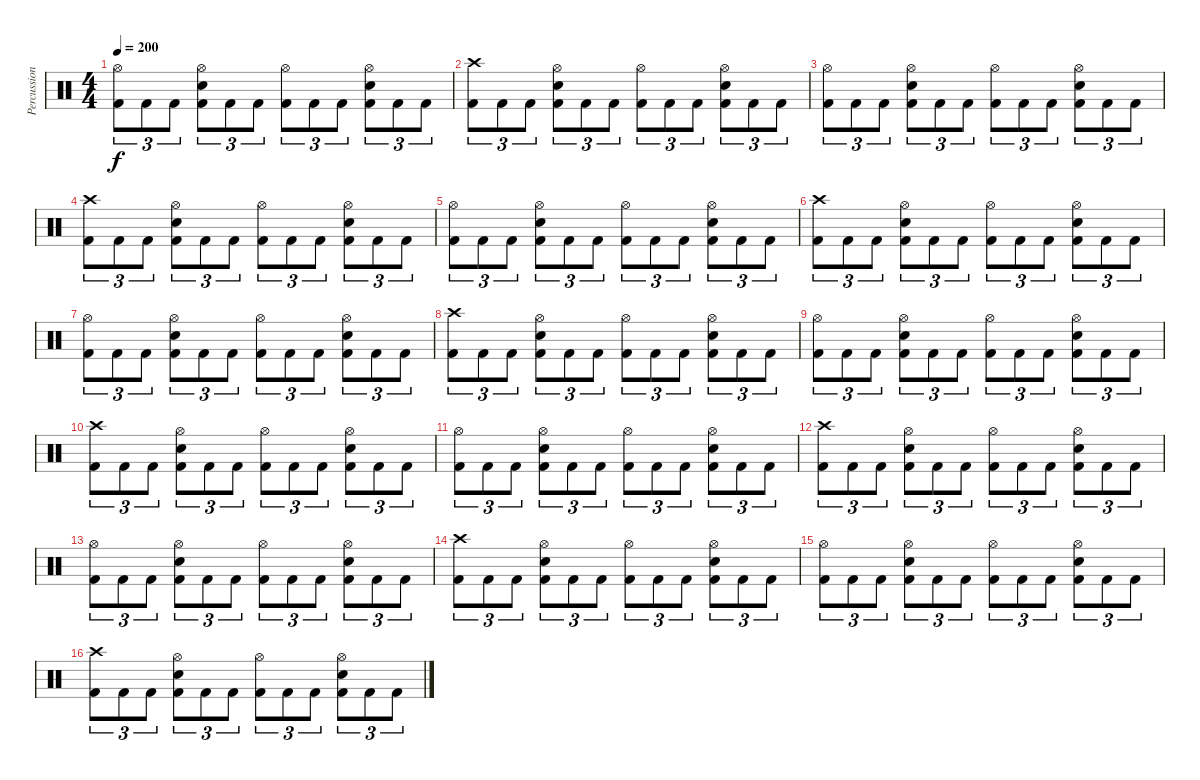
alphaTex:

\track ("Percussion" "Percussion") {instrument percussion}
\staff {score}
\articulation defaults
\ts (4 4)
\tempo 200
\clef neutral
\ks c
("Hi-Hat (open)" "Kick (hit) 2").8{tu (3 2) dy f} "Kick (hit) 2".8{tu (3 2)} "Kick (hit) 2".8{tu (3 2)} ("Hi-Hat (open)" "Electric Snare (hit)" "Kick (hit) 2").8{tu (3 2)} "Kick (hit) 2".8{tu (3 2)} "Kick (hit) 2".8{tu (3 2)} ("Hi-Hat (open)" "Kick (hit) 2").8{tu (3 2)} "Kick (hit) 2".8{tu (3 2)} "Kick (hit) 2".8{tu (3 2)} ("Hi-Hat (open)" "Electric Snare (hit)" "Kick (hit) 2").8{tu (3 2)} "Kick (hit) 2".8{tu (3 2)} "Kick (hit) 2".8{tu (3 2)} |
("Crash high (hit)" "Kick (hit) 2").8{tu (3 2)} "Kick (hit) 2".8{tu (3 2)} "Kick (hit) 2".8{tu (3 2)} ("Hi-Hat (open)" "Electric Snare (hit)" "Kick (hit) 2").8{tu (3 2)} "Kick (hit) 2".8{tu (3 2)} "Kick (hit) 2".8{tu (3 2)} ("Hi-Hat (open)" "Kick (hit) 2").8{tu (3 2)} "Kick (hit) 2".8{tu (3 2)} "Kick (hit) 2".8{tu (3 2)} ("Hi-Hat (open)" "Electric Snare (hit)" "Kick (hit) 2").8{tu (3 2)} "Kick (hit) 2".8{tu (3 2)} "Kick (hit) 2".8{tu (3 2)} |
("Hi-Hat (open)" "Kick (hit) 2").8{tu (3 2)} "Kick (hit) 2".8{tu (3 2)} "Kick (hit) 2".8{tu (3 2)} ("Hi-Hat (open)" "Electric Snare (hit)" "Kick (hit) 2").8{tu (3 2)} "Kick (hit) 2".8{tu (3 2)} "Kick (hit) 2".8{tu (3 2)} ("Hi-Hat (open)" "Kick (hit) 2").8{tu (3 2)} "Kick (hit) 2".8{tu (3 2)} "Kick (hit) 2".8{tu (3 2)} ("Hi-Hat (open)" "Electric Snare (hit)" "Kick (hit) 2").8{tu (3 2)} "Kick (hit) 2".8{tu (3 2)} "Kick (hit) 2".8{tu (3 2)} |
("Crash high (hit)" "Kick (hit) 2").8{tu (3 2)} "Kick (hit) 2".8{tu (3 2)} "Kick (hit) 2".8{tu (3 2)} ("Hi-Hat (open)" "Electric Snare (hit)" "Kick (hit) 2").8{tu (3 2)} "Kick (hit) 2".8{tu (3 2)} "Kick (hit) 2".8{tu (3 2)} ("Hi-Hat (open)" "Kick (hit) 2").8{tu (3 2)} "Kick (hit) 2".8{tu (3 2)} "Kick (hit) 2".8{tu (3 2)} ("Hi-Hat (open)" "Electric Snare (hit)" "Kick (hit) 2").8{tu (3 2)} "Kick (hit) 2".8{tu (3 2)} "Kick (hit) 2".8{tu (3 2)} |
("Hi-Hat (open)" "Kick (hit) 2").8{tu (3 2)} "Kick (hit) 2".8{tu (3 2)} "Kick (hit) 2".8{tu (3 2)} ("Hi-Hat (open)" "Electric Snare (hit)" "Kick (hit) 2").8{tu (3 2)} "Kick (hit) 2".8{tu (3 2)} "Kick (hit) 2".8{tu (3 2)} ("Hi-Hat (open)" "Kick (hit) 2").8{tu (3 2)} "Kick (hit) 2".8{tu (3 2)} "Kick (hit) 2".8{tu (3 2)} ("Hi-Hat (open)" "Electric Snare (hit)" "Kick (hit) 2").8{tu (3 2)} "Kick (hit) 2".8{tu (3 2)} "Kick (hit) 2".8{tu (3 2)} |
("Crash high (hit)" "Kick (hit) 2").8{tu (3 2)} "Kick (hit) 2".8{tu (3 2)} "Kick (hit) 2".8{tu (3 2)} ("Hi-Hat (open)" "Electric Snare (hit)" "Kick (hit) 2").8{tu (3 2)} "Kick (hit) 2".8{tu (3 2)} "Kick (hit) 2".8{tu (3 2)} ("Hi-Hat (open)" "Kick (hit) 2").8{tu (3 2)} "Kick (hit) 2".8{tu (3 2)} "Kick (hit) 2".8{tu (3 2)} ("Hi-Hat (open)" "Electric Snare (hit)" "Kick (hit) 2").8{tu (3 2)} "Kick (hit) 2".8{tu (3 2)} "Kick (hit) 2".8{tu (3 2)} |
("Hi-Hat (open)" "Kick (hit) 2").8{tu (3 2)} "Kick (hit) 2".8{tu (3 2)} "Kick (hit) 2".8{tu (3 2)} ("Hi-Hat (open)" "Electric Snare (hit)" "Kick (hit) 2").8{tu (3 2)} "Kick (hit) 2".8{tu (3 2)} "Kick (hit) 2".8{tu (3 2)} ("Hi-Hat (open)" "Kick (hit) 2").8{tu (3 2)} "Kick (hit) 2".8{tu (3 2)} "Kick (hit) 2".8{tu (3 2)} ("Hi-Hat (open)" "Electric Snare (hit)" "Kick (hit) 2").8{tu (3 2)} "Kick (hit) 2".8{tu (3 2)} "Kick (hit) 2".8{tu (3 2)} |
("Crash high (hit)" "Kick (hit) 2").8{tu (3 2)} "Kick (hit) 2".8{tu (3 2)} "Kick (hit) 2".8{tu (3 2)} ("Hi-Hat (open)" "Electric Snare (hit)" "Kick (hit) 2").8{tu (3 2)} "Kick (hit) 2".8{tu (3 2)} "Kick (hit) 2".8{tu (3 2)} ("Hi-Hat (open)" "Kick (hit) 2").8{tu (3 2)} "Kick (hit) 2".8{tu (3 2)} "Kick (hit) 2".8{tu (3 2)} ("Hi-Hat (open)" "Electric Snare (hit)" "Kick (hit) 2").8{tu (3 2)} "Kick (hit) 2".8{tu (3 2)} "Kick (hit) 2".8{tu (3 2)} |
("Hi-Hat (open)" "Kick (hit) 2").8{tu (3 2)} "Kick (hit) 2".8{tu (3 2)} "Kick (hit) 2".8{tu (3 2)} ("Hi-Hat (open)" "Electric Snare (hit)" "Kick (hit) 2").8{tu (3 2)} "Kick (hit) 2".8{tu (3 2)} "Kick (hit) 2".8{tu (3 2)} ("Hi-Hat (open)" "Kick (hit) 2").8{tu (3 2)} "Kick (hit) 2".8{tu (3 2)} "Kick (hit) 2".8{tu (3 2)} ("Hi-Hat (open)" "Electric Snare (hit)" "Kick (hit) 2").8{tu (3 2)} "Kick (hit) 2".8{tu (3 2)} "Kick (hit) 2".8{tu (3 2)} |
("Crash high (hit)" "Kick (hit) 2").8{tu (3 2)} "Kick (hit) 2".8{tu (3 2)} "Kick (hit) 2".8{tu (3 2)} ("Hi-Hat (open)" "Electric Snare (hit)" "Kick (hit) 2").8{tu (3 2)} "Kick (hit) 2".8{tu (3 2)} "Kick (hit) 2".8{tu (3 2)} ("Hi-Hat (open)" "Kick (hit) 2").8{tu (3 2)} "Kick (hit) 2".8{tu (3 2)} "Kick (hit) 2".8{tu (3 2)} ("Hi-Hat (open)" "Electric Snare (hit)" "Kick (hit) 2").8{tu (3 2)} "Kick (hit) 2".8{tu (3 2)} "Kick (hit) 2".8{tu (3 2)} |
("Hi-Hat (open)" "Kick (hit) 2").8{tu (3 2)} "Kick (hit) 2".8{tu (3 2)} "Kick (hit) 2".8{tu (3 2)} ("Hi-Hat (open)" "Electric Snare (hit)" "Kick (hit) 2").8{tu (3 2)} "Kick (hit) 2".8{tu (3 2)} "Kick (hit) 2".8{tu (3 2)} ("Hi-Hat (open)" "Kick (hit) 2").8{tu (3 2)} "Kick (hit) 2".8{tu (3 2)} "Kick (hit) 2".8{tu (3 2)} ("Hi-Hat (open)" "Electric Snare (hit)" "Kick (hit) 2").8{tu (3 2)} "Kick (hit) 2".8{tu (3 2)} "Kick (hit) 2".8{tu (3 2)} |
("Crash high (hit)" "Kick (hit) 2").8{tu (3 2)} "Kick (hit) 2".8{tu (3 2)} "Kick (hit) 2".8{tu (3 2)} ("Hi-Hat (open)" "Electric Snare (hit)" "Kick (hit) 2").8{tu (3 2)} "Kick (hit) 2".8{tu (3 2)} "Kick (hit) 2".8{tu (3 2)} ("Hi-Hat (open)" "Kick (hit) 2").8{tu (3 2)} "Kick (hit) 2".8{tu (3 2)} "Kick (hit) 2".8{tu (3 2)} ("Hi-Hat (open)" "Electric Snare (hit)" "Kick (hit) 2").8{tu (3 2)} "Kick (hit) 2".8{tu (3 2)} "Kick (hit) 2".8{tu (3 2)} |
("Hi-Hat (open)" "Kick (hit) 2").8{tu (3 2)} "Kick (hit) 2".8{tu (3 2)} "Kick (hit) 2".8{tu (3 2)} ("Hi-Hat (open)" "Electric Snare (hit)" "Kick (hit) 2").8{tu (3 2)} "Kick (hit) 2".8{tu (3 2)} "Kick (hit) 2".8{tu (3 2)} ("Hi-Hat (open)" "Kick (hit) 2").8{tu (3 2)} "Kick (hit) 2".8{tu (3 2)} "Kick (hit) 2".8{tu (3 2)} ("Hi-Hat (open)" "Electric Snare (hit)" "Kick (hit) 2").8{tu (3 2)} "Kick (hit) 2".8{tu (3 2)} "Kick (hit) 2".8{tu (3 2)} |
("Crash high (hit)" "Kick (hit) 2").8{tu (3 2)} "Kick (hit) 2".8{tu (3 2)} "Kick (hit) 2".8{tu (3 2)} ("Hi-Hat (open)" "Electric Snare (hit)" "Kick (hit) 2").8{tu (3 2)} "Kick (hit) 2".8{tu (3 2)} "Kick (hit) 2".8{tu (3 2)} ("Hi-Hat (open)" "Kick (hit) 2").8{tu (3 2)} "Kick (hit) 2".8{tu (3 2)} "Kick (hit) 2".8{tu (3 2)} ("Hi-Hat (open)" "Electric Snare (hit)" "Kick (hit) 2").8{tu (3 2)} "Kick (hit) 2".8{tu (3 2)} "Kick (hit) 2".8{tu (3 2)} |
("Hi-Hat (open)" "Kick (hit) 2").8{tu (3 2)} "Kick (hit) 2".8{tu (3 2)} "Kick (hit) 2".8{tu (3 2)} ("Hi-Hat (open)" "Electric Snare (hit)" "Kick (hit) 2").8{tu (3 2)} "Kick (hit) 2".8{tu (3 2)} "Kick (hit) 2".8{tu (3 2)} ("Hi-Hat (open)" "Kick (hit) 2").8{tu (3 2)} "Kick (hit) 2".8{tu (3 2)} "Kick (hit) 2".8{tu (3 2)} ("Hi-Hat (open)" "Electric Snare (hit)" "Kick (hit) 2").8{tu (3 2)} "Kick (hit) 2".8{tu (3 2)} "Kick (hit) 2".8{tu (3 2)} |
("Crash high (hit)" "Kick (hit) 2").8{tu (3 2)} "Kick (hit) 2".8{tu (3 2)} "Kick (hit) 2".8{tu (3 2)} ("Hi-Hat (open)" "Electric Snare (hit)" "Kick (hit) 2").8{tu (3 2)} "Kick (hit) 2".8{tu (3 2)} "Kick (hit) 2".8{tu (3 2)} ("Hi-Hat (open)" "Kick (hit) 2").8{tu (3 2)} "Kick (hit) 2".8{tu (3 2)} "Kick (hit) 2".8{tu (3 2)} ("Hi-Hat (open)" "Electric Snare (hit)" "Kick (hit) 2").8{tu (3 2)} "Kick (hit) 2".8{tu (3 2)} "Kick (hit) 2".8{tu (3 2)}
